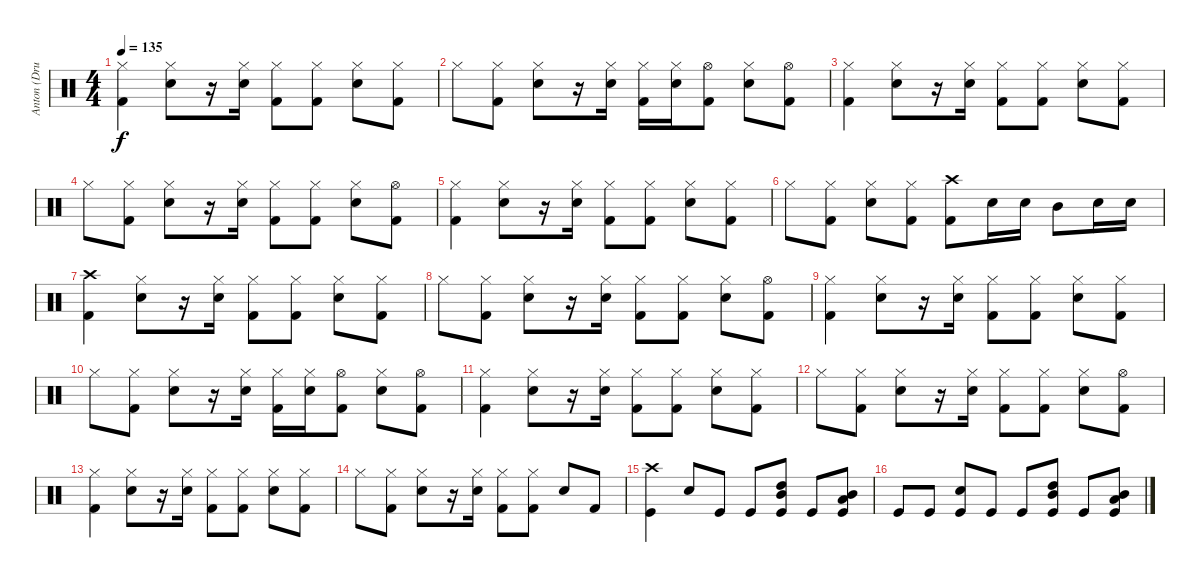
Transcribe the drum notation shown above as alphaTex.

\track ("Anton (Drum)" "Anton (Dru") {instrument percussion}
\staff {score}
\articulation defaults
\ts (4 4)
\tempo 135
\clef neutral
\ks c
("Kick (hit) 2" "Hi-Hat (closed)").4{dy f} ("Snare (hit) 2" "Hi-Hat (closed)").8 r.16 ("Snare (hit) 2" "Hi-Hat (closed)").16 ("Kick (hit) 2" "Hi-Hat (closed)").8 ("Kick (hit) 2" "Hi-Hat (closed)").8 ("Snare (hit) 2" "Hi-Hat (closed)").8 ("Kick (hit) 2" "Hi-Hat (closed)").8 |
"Hi-Hat (closed)".8 ("Kick (hit) 2" "Hi-Hat (closed)").8 ("Snare (hit) 2" "Hi-Hat (closed)").8 r.16 ("Snare (hit) 2" "Hi-Hat (closed)").16 ("Kick (hit) 2" "Hi-Hat (closed)").16 ("Snare (hit) 2" "Hi-Hat (closed)").16 ("Kick (hit) 2" "Hi-Hat (open)").8 ("Snare (hit) 2" "Hi-Hat (closed)").8 ("Kick (hit) 2" "Hi-Hat (open)").8 |
("Kick (hit) 2" "Hi-Hat (closed)").4 ("Snare (hit) 2" "Hi-Hat (closed)").8 r.16 ("Snare (hit) 2" "Hi-Hat (closed)").16 ("Kick (hit) 2" "Hi-Hat (closed)").8 ("Kick (hit) 2" "Hi-Hat (closed)").8 ("Snare (hit) 2" "Hi-Hat (closed)").8 ("Kick (hit) 2" "Hi-Hat (closed)").8 |
"Hi-Hat (closed)".8 ("Kick (hit) 2" "Hi-Hat (closed)").8 ("Snare (hit) 2" "Hi-Hat (closed)").8 r.16 ("Snare (hit) 2" "Hi-Hat (closed)").16 ("Kick (hit) 2" "Hi-Hat (closed)").8 ("Kick (hit) 2" "Hi-Hat (closed)").8 ("Snare (hit) 2" "Hi-Hat (closed)").8 ("Kick (hit) 2" "Hi-Hat (open)").8 |
("Kick (hit) 2" "Hi-Hat (closed)").4 ("Snare (hit) 2" "Hi-Hat (closed)").8 r.16 ("Snare (hit) 2" "Hi-Hat (closed)").16 ("Kick (hit) 2" "Hi-Hat (closed)").8 ("Kick (hit) 2" "Hi-Hat (closed)").8 ("Snare (hit) 2" "Hi-Hat (closed)").8 ("Kick (hit) 2" "Hi-Hat (closed)").8 |
"Hi-Hat (closed)".8 ("Kick (hit) 2" "Hi-Hat (closed)").8 ("Snare (hit) 2" "Hi-Hat (closed)").8 ("Kick (hit) 2" "Hi-Hat (closed)").8 ("Kick (hit) 2" "Crash high (hit)").8 "Snare (hit) 2".16 "Snare (hit) 2".16 "Mid Tom (hit)".8 "Snare (hit) 2".16 "Snare (hit) 2".16 |
("Crash high (hit)" "Kick (hit) 2").4 ("Snare (hit) 2" "Hi-Hat (closed)").8 r.16 ("Snare (hit) 2" "Hi-Hat (closed)").16 ("Kick (hit) 2" "Hi-Hat (closed)").8 ("Kick (hit) 2" "Hi-Hat (closed)").8 ("Snare (hit) 2" "Hi-Hat (closed)").8 ("Kick (hit) 2" "Hi-Hat (closed)").8 |
"Hi-Hat (closed)".8 ("Kick (hit) 2" "Hi-Hat (closed)").8 ("Snare (hit) 2" "Hi-Hat (closed)").8 r.16 ("Snare (hit) 2" "Hi-Hat (closed)").16 ("Kick (hit) 2" "Hi-Hat (closed)").8 ("Kick (hit) 2" "Hi-Hat (closed)").8 ("Snare (hit) 2" "Hi-Hat (closed)").8 ("Kick (hit) 2" "Hi-Hat (open)").8 |
("Kick (hit) 2" "Hi-Hat (closed)").4 ("Snare (hit) 2" "Hi-Hat (closed)").8 r.16 ("Snare (hit) 2" "Hi-Hat (closed)").16 ("Kick (hit) 2" "Hi-Hat (closed)").8 ("Kick (hit) 2" "Hi-Hat (closed)").8 ("Snare (hit) 2" "Hi-Hat (closed)").8 ("Kick (hit) 2" "Hi-Hat (closed)").8 |
"Hi-Hat (closed)".8 ("Kick (hit) 2" "Hi-Hat (closed)").8 ("Snare (hit) 2" "Hi-Hat (closed)").8 r.16 ("Snare (hit) 2" "Hi-Hat (closed)").16 ("Kick (hit) 2" "Hi-Hat (closed)").16 ("Snare (hit) 2" "Hi-Hat (closed)").16 ("Kick (hit) 2" "Hi-Hat (open)").8 ("Snare (hit) 2" "Hi-Hat (closed)").8 ("Kick (hit) 2" "Hi-Hat (open)").8 |
("Kick (hit) 2" "Hi-Hat (closed)").4 ("Snare (hit) 2" "Hi-Hat (closed)").8 r.16 ("Snare (hit) 2" "Hi-Hat (closed)").16 ("Kick (hit) 2" "Hi-Hat (closed)").8 ("Kick (hit) 2" "Hi-Hat (closed)").8 ("Snare (hit) 2" "Hi-Hat (closed)").8 ("Kick (hit) 2" "Hi-Hat (closed)").8 |
"Hi-Hat (closed)".8 ("Kick (hit) 2" "Hi-Hat (closed)").8 ("Snare (hit) 2" "Hi-Hat (closed)").8 r.16 ("Snare (hit) 2" "Hi-Hat (closed)").16 ("Kick (hit) 2" "Hi-Hat (closed)").8 ("Kick (hit) 2" "Hi-Hat (closed)").8 ("Snare (hit) 2" "Hi-Hat (closed)").8 ("Kick (hit) 2" "Hi-Hat (open)").8 |
("Kick (hit) 2" "Hi-Hat (closed)").4 ("Snare (hit) 2" "Hi-Hat (closed)").8 r.16 ("Snare (hit) 2" "Hi-Hat (closed)").16 ("Kick (hit) 2" "Hi-Hat (closed)").8 ("Kick (hit) 2" "Hi-Hat (closed)").8 ("Snare (hit) 2" "Hi-Hat (closed)").8 ("Kick (hit) 2" "Hi-Hat (closed)").8 |
"Hi-Hat (closed)".8 ("Kick (hit) 2" "Hi-Hat (closed)").8 ("Snare (hit) 2" "Hi-Hat (closed)").8 r.16 ("Snare (hit) 2" "Hi-Hat (closed)").16 ("Kick (hit) 2" "Hi-Hat (closed)").8 ("Kick (hit) 2" "Hi-Hat (closed)").8 "Snare (hit) 2".8 "Kick (hit) 2".8 |
("Kick (hit)" "Crash high (hit)").4 "Snare (hit) 2".8 "Kick (hit)".8 "Kick (hit)".8 ("Kick (hit)" "High Tom (hit)" "Mid Tom (hit)").8 "Kick (hit)".8 ("Kick (hit)" "Low Tom (hit)" "Mid Tom (hit)").8 |
"Kick (hit)".8 "Kick (hit)".8 ("Kick (hit)" "Snare (hit) 2").8 "Kick (hit)".8 "Kick (hit)".8 ("Kick (hit)" "High Tom (hit)" "Mid Tom (hit)").8 "Kick (hit)".8 ("Kick (hit)" "Low Tom (hit)" "Mid Tom (hit)").8
